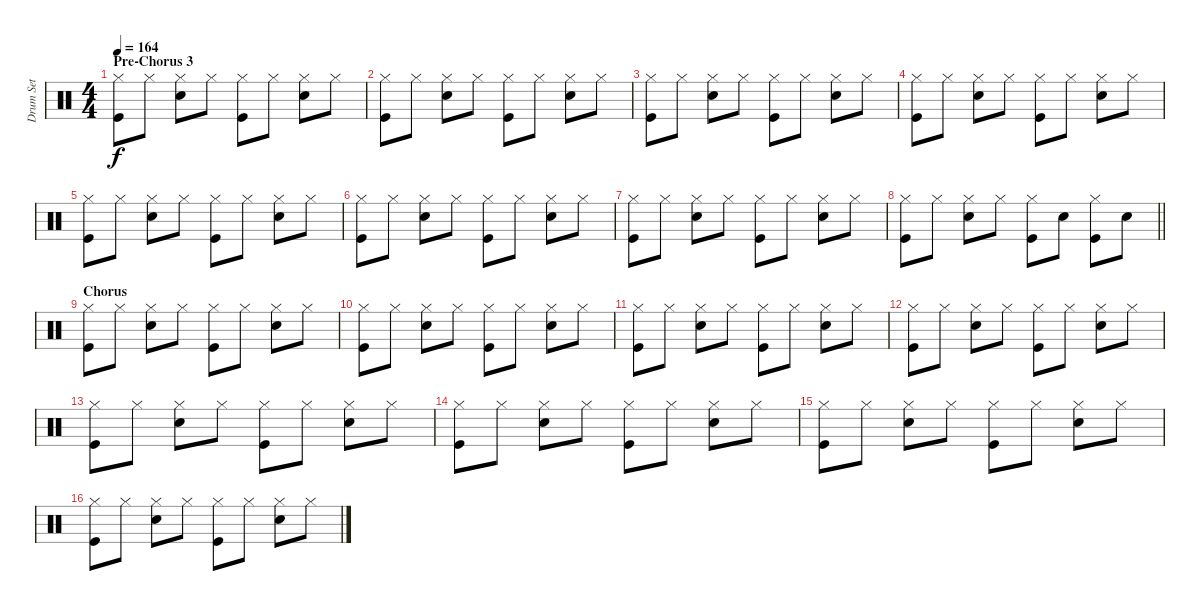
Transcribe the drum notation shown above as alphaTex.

\track ("Drum Set" "Drum Set") {instrument percussion}
\staff {score}
\articulation defaults
\ts (4 4)
\section ("" "Pre-Chorus 3")
\tempo 164
\clef neutral
\ks c
("Kick (hit)" "Hi-Hat (closed)").8{dy f} "Hi-Hat (closed)".8 ("Electric Snare (hit)" "Hi-Hat (closed)").8 "Hi-Hat (closed)".8 ("Kick (hit)" "Hi-Hat (closed)").8 "Hi-Hat (closed)".8 ("Electric Snare (hit)" "Hi-Hat (closed)").8 "Hi-Hat (closed)".8 |
("Kick (hit)" "Hi-Hat (closed)").8 "Hi-Hat (closed)".8 ("Electric Snare (hit)" "Hi-Hat (closed)").8 "Hi-Hat (closed)".8 ("Kick (hit)" "Hi-Hat (closed)").8 "Hi-Hat (closed)".8 ("Electric Snare (hit)" "Hi-Hat (closed)").8 "Hi-Hat (closed)".8 |
("Kick (hit)" "Hi-Hat (closed)").8 "Hi-Hat (closed)".8 ("Electric Snare (hit)" "Hi-Hat (closed)").8 "Hi-Hat (closed)".8 ("Kick (hit)" "Hi-Hat (closed)").8 "Hi-Hat (closed)".8 ("Electric Snare (hit)" "Hi-Hat (closed)").8 "Hi-Hat (closed)".8 |
("Kick (hit)" "Hi-Hat (closed)").8 "Hi-Hat (closed)".8 ("Electric Snare (hit)" "Hi-Hat (closed)").8 "Hi-Hat (closed)".8 ("Kick (hit)" "Hi-Hat (closed)").8 "Hi-Hat (closed)".8 ("Electric Snare (hit)" "Hi-Hat (closed)").8 "Hi-Hat (closed)".8 |
("Kick (hit)" "Hi-Hat (closed)").8 "Hi-Hat (closed)".8 ("Electric Snare (hit)" "Hi-Hat (closed)").8 "Hi-Hat (closed)".8 ("Kick (hit)" "Hi-Hat (closed)").8 "Hi-Hat (closed)".8 ("Electric Snare (hit)" "Hi-Hat (closed)").8 "Hi-Hat (closed)".8 |
("Kick (hit)" "Hi-Hat (closed)").8 "Hi-Hat (closed)".8 ("Electric Snare (hit)" "Hi-Hat (closed)").8 "Hi-Hat (closed)".8 ("Kick (hit)" "Hi-Hat (closed)").8 "Hi-Hat (closed)".8 ("Electric Snare (hit)" "Hi-Hat (closed)").8 "Hi-Hat (closed)".8 |
("Kick (hit)" "Hi-Hat (closed)").8 "Hi-Hat (closed)".8 ("Electric Snare (hit)" "Hi-Hat (closed)").8 "Hi-Hat (closed)".8 ("Kick (hit)" "Hi-Hat (closed)").8 "Hi-Hat (closed)".8 ("Electric Snare (hit)" "Hi-Hat (closed)").8 "Hi-Hat (closed)".8 |
\barLineRight lightlight
("Kick (hit)" "Hi-Hat (closed)").8 "Hi-Hat (closed)".8 ("Electric Snare (hit)" "Hi-Hat (closed)").8 "Hi-Hat (closed)".8 ("Kick (hit)" "Hi-Hat (closed)").8 "Electric Snare (hit)".8 ("Kick (hit)" "Hi-Hat (closed)").8 "Electric Snare (hit)".8 |
\section ("" "Chorus")
("Kick (hit)" "Hi-Hat (closed)").8 "Hi-Hat (closed)".8 ("Electric Snare (hit)" "Hi-Hat (closed)").8 "Hi-Hat (closed)".8 ("Kick (hit)" "Hi-Hat (closed)").8 "Hi-Hat (closed)".8 ("Electric Snare (hit)" "Hi-Hat (closed)").8 "Hi-Hat (closed)".8 |
("Kick (hit)" "Hi-Hat (closed)").8 "Hi-Hat (closed)".8 ("Electric Snare (hit)" "Hi-Hat (closed)").8 "Hi-Hat (closed)".8 ("Kick (hit)" "Hi-Hat (closed)").8 "Hi-Hat (closed)".8 ("Electric Snare (hit)" "Hi-Hat (closed)").8 "Hi-Hat (closed)".8 |
("Kick (hit)" "Hi-Hat (closed)").8 "Hi-Hat (closed)".8 ("Electric Snare (hit)" "Hi-Hat (closed)").8 "Hi-Hat (closed)".8 ("Kick (hit)" "Hi-Hat (closed)").8 "Hi-Hat (closed)".8 ("Electric Snare (hit)" "Hi-Hat (closed)").8 "Hi-Hat (closed)".8 |
("Kick (hit)" "Hi-Hat (closed)").8 "Hi-Hat (closed)".8 ("Electric Snare (hit)" "Hi-Hat (closed)").8 "Hi-Hat (closed)".8 ("Kick (hit)" "Hi-Hat (closed)").8 "Hi-Hat (closed)".8 ("Electric Snare (hit)" "Hi-Hat (closed)").8 "Hi-Hat (closed)".8 |
("Kick (hit)" "Hi-Hat (closed)").8 "Hi-Hat (closed)".8 ("Electric Snare (hit)" "Hi-Hat (closed)").8 "Hi-Hat (closed)".8 ("Kick (hit)" "Hi-Hat (closed)").8 "Hi-Hat (closed)".8 ("Electric Snare (hit)" "Hi-Hat (closed)").8 "Hi-Hat (closed)".8 |
("Kick (hit)" "Hi-Hat (closed)").8 "Hi-Hat (closed)".8 ("Electric Snare (hit)" "Hi-Hat (closed)").8 "Hi-Hat (closed)".8 ("Kick (hit)" "Hi-Hat (closed)").8 "Hi-Hat (closed)".8 ("Electric Snare (hit)" "Hi-Hat (closed)").8 "Hi-Hat (closed)".8 |
("Kick (hit)" "Hi-Hat (closed)").8 "Hi-Hat (closed)".8 ("Electric Snare (hit)" "Hi-Hat (closed)").8 "Hi-Hat (closed)".8 ("Kick (hit)" "Hi-Hat (closed)").8 "Hi-Hat (closed)".8 ("Electric Snare (hit)" "Hi-Hat (closed)").8 "Hi-Hat (closed)".8 |
("Kick (hit)" "Hi-Hat (closed)").8 "Hi-Hat (closed)".8 ("Electric Snare (hit)" "Hi-Hat (closed)").8 "Hi-Hat (closed)".8 ("Kick (hit)" "Hi-Hat (closed)").8 "Hi-Hat (closed)".8 ("Electric Snare (hit)" "Hi-Hat (closed)").8 "Hi-Hat (closed)".8
